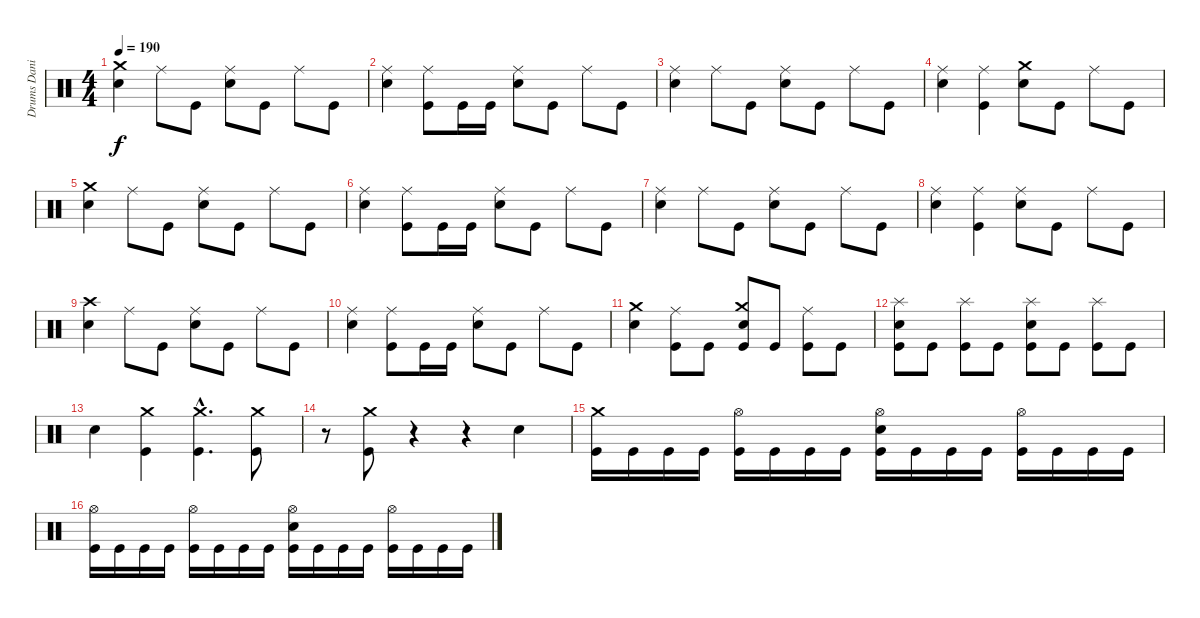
\track ("Drums Daniel" "Drums Dani") {instrument percussion}
\staff {score}
\articulation defaults
\ts (4 4)
\tempo 190
\clef neutral
\ks c
("Electric Snare (hit)" "Crash medium (hit)").4{dy f} "Ride (middle)".8 "Kick (hit)".8 ("Electric Snare (hit)" "Ride (middle)").8 "Kick (hit)".8 "Ride (middle)".8 "Kick (hit)".8 |
("Electric Snare (hit)" "Ride (middle)").4 ("Kick (hit)" "Ride (middle)").8 "Kick (hit)".16 "Kick (hit)".16 ("Electric Snare (hit)" "Ride (middle)").8 "Kick (hit)".8 "Ride (middle)".8 "Kick (hit)".8 |
("Electric Snare (hit)" "Ride (middle)").4 "Ride (middle)".8 "Kick (hit)".8 ("Electric Snare (hit)" "Ride (middle)").8 "Kick (hit)".8 "Ride (middle)".8 "Kick (hit)".8 |
("Electric Snare (hit)" "Ride (middle)").4 ("Kick (hit)" "Ride (middle)").4 ("Electric Snare (hit)" "Crash medium (hit)").8 "Kick (hit)".8 "Ride (middle)".8 "Kick (hit)".8 |
("Electric Snare (hit)" "Crash medium (hit)").4 "Ride (middle)".8 "Kick (hit)".8 ("Electric Snare (hit)" "Ride (middle)").8 "Kick (hit)".8 "Ride (middle)".8 "Kick (hit)".8 |
("Electric Snare (hit)" "Ride (middle)").4 ("Kick (hit)" "Ride (middle)").8 "Kick (hit)".16 "Kick (hit)".16 ("Electric Snare (hit)" "Ride (middle)").8 "Kick (hit)".8 "Ride (middle)".8 "Kick (hit)".8 |
("Electric Snare (hit)" "Ride (middle)").4 "Ride (middle)".8 "Kick (hit)".8 ("Electric Snare (hit)" "Ride (middle)").8 "Kick (hit)".8 "Ride (middle)".8 "Kick (hit)".8 |
("Electric Snare (hit)" "Ride (middle)").4 ("Kick (hit)" "Ride (middle)").4 ("Electric Snare (hit)" "Ride (middle)").8 "Kick (hit)".8 "Ride (middle)".8 "Kick (hit)".8 |
("Electric Snare (hit)" "Crash high (hit)").4 "Ride (middle)".8 "Kick (hit)".8 ("Electric Snare (hit)" "Ride (middle)").8 "Kick (hit)".8 "Ride (middle)".8 "Kick (hit)".8 |
("Electric Snare (hit)" "Ride (middle)").4 ("Kick (hit)" "Ride (middle)").8 "Kick (hit)".16 "Kick (hit)".16 ("Electric Snare (hit)" "Ride (middle)").8 "Kick (hit)".8 "Ride (middle)".8 "Kick (hit)".8 |
("Electric Snare (hit)" "Crash medium (hit)").4 ("Kick (hit)" "Ride (middle)").8 "Kick (hit)".8 ("Kick (hit)" "Electric Snare (hit)" "Crash medium (hit)").8 "Kick (hit)".8 ("Kick (hit)" "Ride (middle)").8 "Kick (hit)".8 |
("Kick (hit)" "Electric Snare (hit)" "Splash (hit)").8 "Kick (hit)".8 ("Kick (hit)" "Splash (hit)").8 "Kick (hit)".8 ("Kick (hit)" "Electric Snare (hit)" "Splash (hit)").8 "Kick (hit)".8 ("Kick (hit)" "Splash (hit)").8 "Kick (hit)".8 |
"Electric Snare (hit)".4 ("Kick (hit)" "Crash medium (hit)").4 ("Kick (hit)"{hac} "Crash medium (hit)"{hac}).4{d} ("Kick (hit)" "Crash medium (hit)").8 |
r.8 ("Kick (hit)" "Crash medium (hit)").8 r.4 r.4 "Electric Snare (hit)".4 |
("Kick (hit)" "Crash medium (hit)").16 "Kick (hit)".16 "Kick (hit)".16 "Kick (hit)".16 ("Kick (hit)" "Hi-Hat (open)").16 "Kick (hit)".16 "Kick (hit)".16 "Kick (hit)".16 ("Kick (hit)" "Electric Snare (hit)" "Hi-Hat (open)").16 "Kick (hit)".16 "Kick (hit)".16 "Kick (hit)".16 ("Kick (hit)" "Hi-Hat (open)").16 "Kick (hit)".16 "Kick (hit)".16 "Kick (hit)".16 |
("Kick (hit)" "Hi-Hat (open)").16 "Kick (hit)".16 "Kick (hit)".16 "Kick (hit)".16 ("Kick (hit)" "Hi-Hat (open)").16 "Kick (hit)".16 "Kick (hit)".16 "Kick (hit)".16 ("Kick (hit)" "Electric Snare (hit)" "Hi-Hat (open)").16 "Kick (hit)".16 "Kick (hit)".16 "Kick (hit)".16 ("Kick (hit)" "Hi-Hat (open)").16 "Kick (hit)".16 "Kick (hit)".16 "Kick (hit)".16
